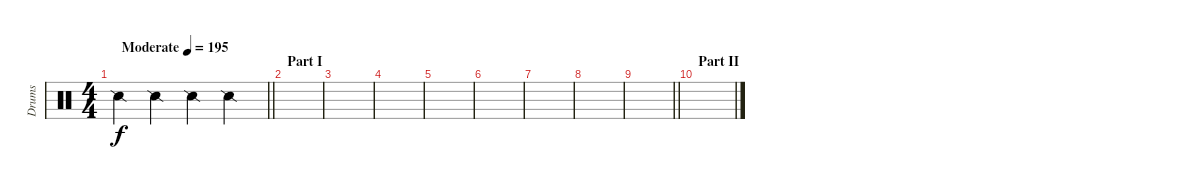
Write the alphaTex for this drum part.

\track ("Drums" "Drums") {instrument percussion}
\staff {score}
\articulation defaults
\ts (4 4)
\tempo (195 "Moderate")
\clef neutral
\barLineRight lightlight
\ks c "Snare (side stick) 2".4{dy f} "Snare (side stick) 2".4 "Snare (side stick) 2".4 "Snare (side stick) 2".4
|
\section ("" "Part I")
|
|
|
|
|
|
|
\barLineRight lightlight
|
\section ("" "Part II")
